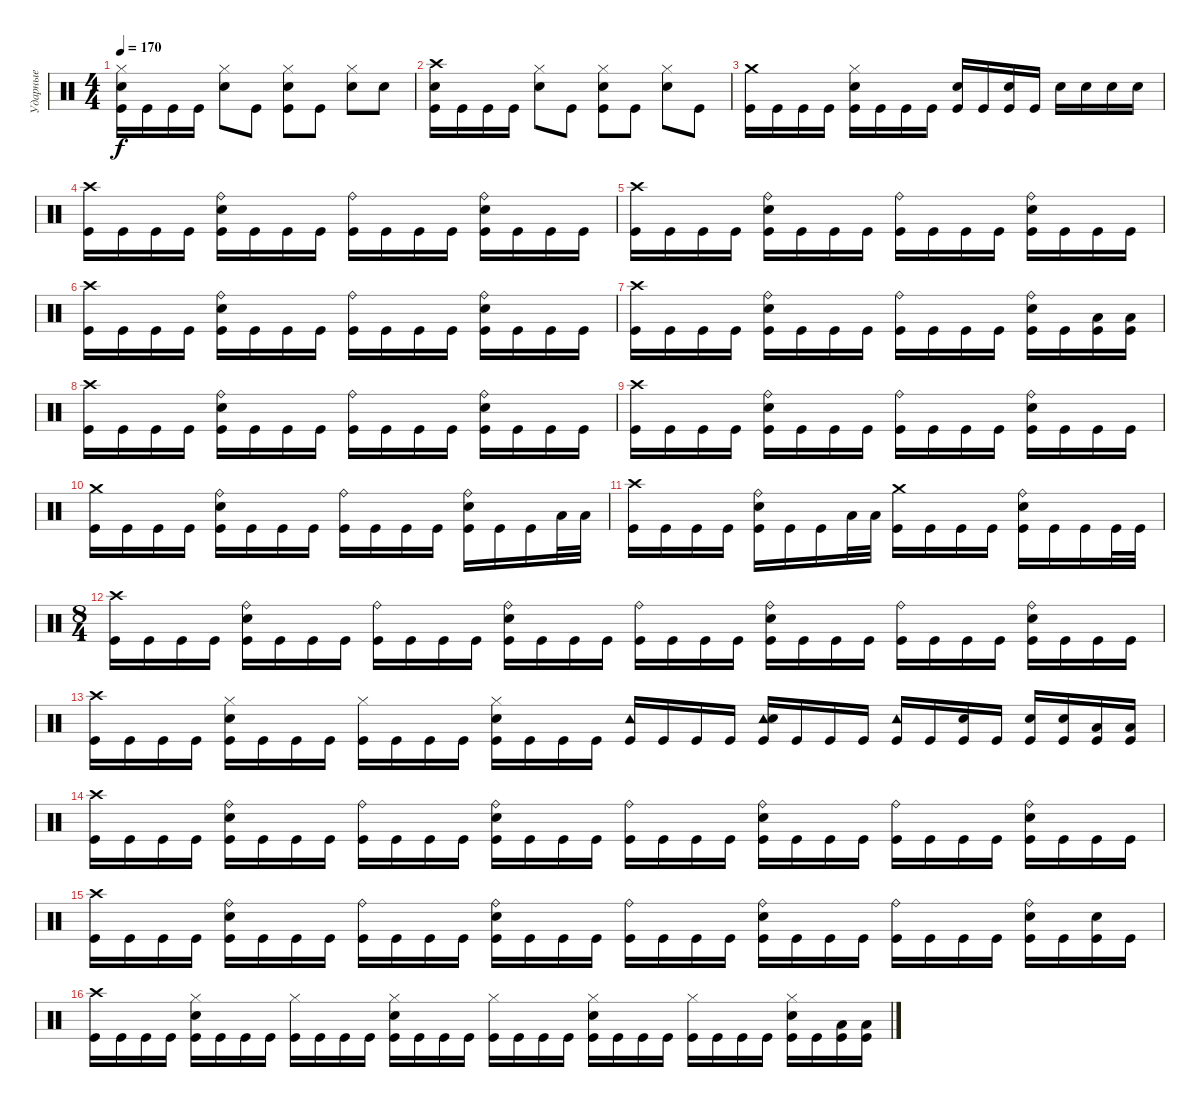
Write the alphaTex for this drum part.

\track ("Ударные" "Ударные") {instrument percussion}
\staff {score}
\articulation defaults
\ts (4 4)
\tempo 170
\clef neutral
\ks c
("Hi-Hat (closed)" "Electric Snare (hit)" "Kick (hit)").16{dy f} "Kick (hit)".16 "Kick (hit)".16 "Kick (hit)".16 ("Hi-Hat (closed)" "Electric Snare (hit)").8 "Kick (hit)".8 ("Hi-Hat (closed)" "Electric Snare (hit)" "Kick (hit)").8 "Kick (hit)".8 ("Hi-Hat (closed)" "Electric Snare (hit)").8 "Electric Snare (hit)".8 |
("Crash high (hit)" "Electric Snare (hit)" "Kick (hit)").16 "Kick (hit)".16 "Kick (hit)".16 "Kick (hit)".16 ("Hi-Hat (closed)" "Electric Snare (hit)").8 "Kick (hit)".8 ("Hi-Hat (closed)" "Electric Snare (hit)" "Kick (hit)").8 "Kick (hit)".8 ("Hi-Hat (closed)" "Electric Snare (hit)").8 "Kick (hit)".8 |
("Crash medium (hit)" "Kick (hit)").16 "Kick (hit)".16 "Kick (hit)".16 "Kick (hit)".16 ("Hi-Hat (closed)" "Electric Snare (hit)" "Kick (hit)").16 "Kick (hit)".16 "Kick (hit)".16 "Kick (hit)".16 ("Electric Snare (hit)" "Kick (hit)").16 "Kick (hit)".16 ("Electric Snare (hit)" "Kick (hit)").16 "Kick (hit)".16 "Electric Snare (hit)".16 "Electric Snare (hit)".16 "Electric Snare (hit)".16 "Electric Snare (hit)".16 |
("Crash high (hit)" "Kick (hit)").16 "Kick (hit)".16 "Kick (hit)".16 "Kick (hit)".16 ("Ride (bell)" "Electric Snare (hit)" "Kick (hit)").16 "Kick (hit)".16 "Kick (hit)".16 "Kick (hit)".16 ("Ride (bell)" "Kick (hit)").16 "Kick (hit)".16 "Kick (hit)".16 "Kick (hit)".16 ("Ride (bell)" "Electric Snare (hit)" "Kick (hit)").16 "Kick (hit)".16 "Kick (hit)".16 "Kick (hit)".16 |
("Crash high (hit)" "Kick (hit)").16 "Kick (hit)".16 "Kick (hit)".16 "Kick (hit)".16 ("Ride (bell)" "Electric Snare (hit)" "Kick (hit)").16 "Kick (hit)".16 "Kick (hit)".16 "Kick (hit)".16 ("Ride (bell)" "Kick (hit)").16 "Kick (hit)".16 "Kick (hit)".16 "Kick (hit)".16 ("Ride (bell)" "Electric Snare (hit)" "Kick (hit)").16 "Kick (hit)".16 "Kick (hit)".16 "Kick (hit)".16 |
("Crash high (hit)" "Kick (hit)").16 "Kick (hit)".16 "Kick (hit)".16 "Kick (hit)".16 ("Ride (bell)" "Electric Snare (hit)" "Kick (hit)").16 "Kick (hit)".16 "Kick (hit)".16 "Kick (hit)".16 ("Ride (bell)" "Kick (hit)").16 "Kick (hit)".16 "Kick (hit)".16 "Kick (hit)".16 ("Ride (bell)" "Electric Snare (hit)" "Kick (hit)").16 "Kick (hit)".16 "Kick (hit)".16 "Kick (hit)".16 |
("Crash high (hit)" "Kick (hit)").16 "Kick (hit)".16 "Kick (hit)".16 "Kick (hit)".16 ("Ride (bell)" "Electric Snare (hit)" "Kick (hit)").16 "Kick (hit)".16 "Kick (hit)".16 "Kick (hit)".16 ("Ride (bell)" "Kick (hit)").16 "Kick (hit)".16 "Kick (hit)".16 "Kick (hit)".16 ("Ride (bell)" "Electric Snare (hit)" "Kick (hit)").16 "Kick (hit)".16 ("Low Tom (hit)" "Kick (hit)").16 ("Low Tom (hit)" "Kick (hit)").16 |
("Crash high (hit)" "Kick (hit)").16 "Kick (hit)".16 "Kick (hit)".16 "Kick (hit)".16 ("Ride (bell)" "Electric Snare (hit)" "Kick (hit)").16 "Kick (hit)".16 "Kick (hit)".16 "Kick (hit)".16 ("Ride (bell)" "Kick (hit)").16 "Kick (hit)".16 "Kick (hit)".16 "Kick (hit)".16 ("Ride (bell)" "Electric Snare (hit)" "Kick (hit)").16 "Kick (hit)".16 "Kick (hit)".16 "Kick (hit)".16 |
("Crash high (hit)" "Kick (hit)").16 "Kick (hit)".16 "Kick (hit)".16 "Kick (hit)".16 ("Ride (bell)" "Electric Snare (hit)" "Kick (hit)").16 "Kick (hit)".16 "Kick (hit)".16 "Kick (hit)".16 ("Ride (bell)" "Kick (hit)").16 "Kick (hit)".16 "Kick (hit)".16 "Kick (hit)".16 ("Ride (bell)" "Electric Snare (hit)" "Kick (hit)").16 "Kick (hit)".16 "Kick (hit)".16 "Kick (hit)".16 |
("Crash medium (hit)" "Kick (hit)").16 "Kick (hit)".16 "Kick (hit)".16 "Kick (hit)".16 ("Ride (bell)" "Electric Snare (hit)" "Kick (hit)").16 "Kick (hit)".16 "Kick (hit)".16 "Kick (hit)".16 ("Ride (bell)" "Kick (hit)").16 "Kick (hit)".16 "Kick (hit)".16 "Kick (hit)".16 ("Ride (bell)" "Electric Snare (hit)" "Kick (hit)").16 "Kick (hit)".16 "Kick (hit)".16 "Low Tom (hit)".32 "Low Tom (hit)".32 |
("Crash high (hit)" "Kick (hit)").16 "Kick (hit)".16 "Kick (hit)".16 "Kick (hit)".16 ("Ride (bell)" "Electric Snare (hit)" "Kick (hit)").16 "Kick (hit)".16 "Kick (hit)".16 "Low Tom (hit)".32 "Low Tom (hit)".32 ("Crash medium (hit)" "Kick (hit)").16 "Kick (hit)".16 "Kick (hit)".16 "Kick (hit)".16 ("Ride (bell)" "Electric Snare (hit)" "Kick (hit)").16 "Kick (hit)".16 "Kick (hit)".16 "Kick (hit)".32 "Kick (hit)".32 |
\ts (8 4)
("Crash high (hit)" "Kick (hit)").16 "Kick (hit)".16 "Kick (hit)".16 "Kick (hit)".16 ("Ride (bell)" "Electric Snare (hit)" "Kick (hit)").16 "Kick (hit)".16 "Kick (hit)".16 "Kick (hit)".16 ("Ride (bell)" "Kick (hit)").16 "Kick (hit)".16 "Kick (hit)".16 "Kick (hit)".16 ("Ride (bell)" "Electric Snare (hit)" "Kick (hit)").16 "Kick (hit)".16 "Kick (hit)".16 "Kick (hit)".16 ("Ride (bell)" "Kick (hit)").16 "Kick (hit)".16 "Kick (hit)".16 "Kick (hit)".16 ("Ride (bell)" "Electric Snare (hit)" "Kick (hit)").16 "Kick (hit)".16 "Kick (hit)".16 "Kick (hit)".16 ("Ride (bell)" "Kick (hit)").16 "Kick (hit)".16 "Kick (hit)".16 "Kick (hit)".16 ("Ride (bell)" "Electric Snare (hit)" "Kick (hit)").16 "Kick (hit)".16 "Kick (hit)".16 "Kick (hit)".16 |
("Crash high (hit)" "Kick (hit)").16 "Kick (hit)".16 "Kick (hit)".16 "Kick (hit)".16 ("Hi-Hat (closed)" "Electric Snare (hit)" "Kick (hit)").16 "Kick (hit)".16 "Kick (hit)".16 "Kick (hit)".16 ("Hi-Hat (closed)" "Kick (hit)").16 "Kick (hit)".16 "Kick (hit)".16 "Kick (hit)".16 ("Hi-Hat (closed)" "Electric Snare (hit)" "Kick (hit)").16 "Kick (hit)".16 "Kick (hit)".16 "Kick (hit)".16 ("Tambourine (hit)" "Kick (hit)").16 "Kick (hit)".16 "Kick (hit)".16 "Kick (hit)".16 ("Tambourine (hit)" "Electric Snare (hit)" "Kick (hit)").16 "Kick (hit)".16 "Kick (hit)".16 "Kick (hit)".16 ("Tambourine (hit)" "Kick (hit)").16 "Kick (hit)".16 ("Electric Snare (hit)" "Kick (hit)").16 "Kick (hit)".16 ("Electric Snare (hit)" "Kick (hit)").16 ("Electric Snare (hit)" "Kick (hit)").16 ("Low Tom (hit)" "Kick (hit)").16 ("Low Tom (hit)" "Kick (hit)").16 |
("Crash high (hit)" "Kick (hit)").16 "Kick (hit)".16 "Kick (hit)".16 "Kick (hit)".16 ("Ride (bell)" "Electric Snare (hit)" "Kick (hit)").16 "Kick (hit)".16 "Kick (hit)".16 "Kick (hit)".16 ("Ride (bell)" "Kick (hit)").16 "Kick (hit)".16 "Kick (hit)".16 "Kick (hit)".16 ("Ride (bell)" "Electric Snare (hit)" "Kick (hit)").16 "Kick (hit)".16 "Kick (hit)".16 "Kick (hit)".16 ("Ride (bell)" "Kick (hit)").16 "Kick (hit)".16 "Kick (hit)".16 "Kick (hit)".16 ("Ride (bell)" "Electric Snare (hit)" "Kick (hit)").16 "Kick (hit)".16 "Kick (hit)".16 "Kick (hit)".16 ("Ride (bell)" "Kick (hit)").16 "Kick (hit)".16 "Kick (hit)".16 "Kick (hit)".16 ("Ride (bell)" "Electric Snare (hit)" "Kick (hit)").16 "Kick (hit)".16 "Kick (hit)".16 "Kick (hit)".16 |
("Crash high (hit)" "Kick (hit)").16 "Kick (hit)".16 "Kick (hit)".16 "Kick (hit)".16 ("Ride (bell)" "Electric Snare (hit)" "Kick (hit)").16 "Kick (hit)".16 "Kick (hit)".16 "Kick (hit)".16 ("Ride (bell)" "Kick (hit)").16 "Kick (hit)".16 "Kick (hit)".16 "Kick (hit)".16 ("Ride (bell)" "Electric Snare (hit)" "Kick (hit)").16 "Kick (hit)".16 "Kick (hit)".16 "Kick (hit)".16 ("Ride (bell)" "Kick (hit)").16 "Kick (hit)".16 "Kick (hit)".16 "Kick (hit)".16 ("Ride (bell)" "Electric Snare (hit)" "Kick (hit)").16 "Kick (hit)".16 "Kick (hit)".16 "Kick (hit)".16 ("Ride (bell)" "Kick (hit)").16 "Kick (hit)".16 "Kick (hit)".16 "Kick (hit)".16 ("Ride (bell)" "Electric Snare (hit)" "Kick (hit)").16 "Kick (hit)".16 ("Electric Snare (hit)" "Kick (hit)").16 "Kick (hit)".16 |
("Crash high (hit)" "Kick (hit)").16 "Kick (hit)".16 "Kick (hit)".16 "Kick (hit)".16 ("Hi-Hat (closed)" "Electric Snare (hit)" "Kick (hit)").16 "Kick (hit)".16 "Kick (hit)".16 "Kick (hit)".16 ("Hi-Hat (closed)" "Kick (hit)").16 "Kick (hit)".16 "Kick (hit)".16 "Kick (hit)".16 ("Hi-Hat (closed)" "Electric Snare (hit)" "Kick (hit)").16 "Kick (hit)".16 "Kick (hit)".16 "Kick (hit)".16 ("Hi-Hat (closed)" "Kick (hit)").16 "Kick (hit)".16 "Kick (hit)".16 "Kick (hit)".16 ("Hi-Hat (closed)" "Electric Snare (hit)" "Kick (hit)").16 "Kick (hit)".16 "Kick (hit)".16 "Kick (hit)".16 ("Hi-Hat (closed)" "Kick (hit)").16 "Kick (hit)".16 "Kick (hit)".16 "Kick (hit)".16 ("Hi-Hat (closed)" "Electric Snare (hit)" "Kick (hit)").16 "Kick (hit)".16 ("Low Tom (hit)" "Kick (hit)").16 ("Low Tom (hit)" "Kick (hit)").16
